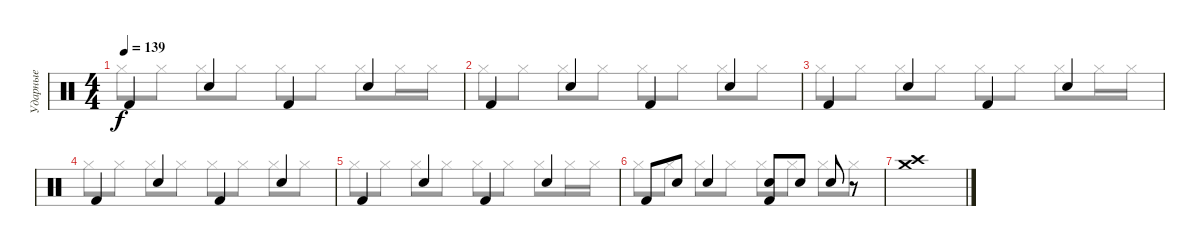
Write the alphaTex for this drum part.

\track ("Ударные" "Ударные") {instrument percussion}
\staff {score}
\articulation defaults
\voice
\ts (4 4)
\tempo 139
\clef neutral
\ks c "Kick (hit) 2".4{dy f} "Snare (hit) 2".4 "Kick (hit) 2".4 "Snare (hit) 2".4
|
"Kick (hit) 2".4 "Snare (hit) 2".4 "Kick (hit) 2".4 "Snare (hit) 2".4 |
"Kick (hit) 2".4 "Snare (hit) 2".4 "Kick (hit) 2".4 "Snare (hit) 2".4 |
"Kick (hit) 2".4 "Snare (hit) 2".4 "Kick (hit) 2".4 "Snare (hit) 2".4 |
"Kick (hit) 2".4 "Snare (hit) 2".4 "Kick (hit) 2".4 "Snare (hit) 2".4 |
"Kick (hit) 2".8 "Snare (hit) 2".8 "Snare (hit) 2".4 ("Kick (hit) 2" "Snare (hit) 2").8 "Snare (hit) 2".8 "Snare (hit) 2".8 r.8 |
("Crash high (hit)" "Crash medium (hit)").1 |
|
\voice
\clef neutral
\ottava regular
\simile none
\ks c "Hi-Hat (closed)".8{dy f} "Hi-Hat (closed)".8 "Hi-Hat (closed)".8 "Hi-Hat (closed)".8 "Hi-Hat (closed)".8 "Hi-Hat (closed)".8 "Hi-Hat (closed)".8 "Hi-Hat (closed)".16 "Hi-Hat (closed)".16
|
"Hi-Hat (closed)".8 "Hi-Hat (closed)".8 "Hi-Hat (closed)".8 "Hi-Hat (closed)".8 "Hi-Hat (closed)".8 "Hi-Hat (closed)".8 "Hi-Hat (closed)".8 "Hi-Hat (closed)".8 |
"Hi-Hat (closed)".8 "Hi-Hat (closed)".8 "Hi-Hat (closed)".8 "Hi-Hat (closed)".8 "Hi-Hat (closed)".8 "Hi-Hat (closed)".8 "Hi-Hat (closed)".8 "Hi-Hat (closed)".16 "Hi-Hat (closed)".16 |
"Hi-Hat (closed)".8 "Hi-Hat (closed)".8 "Hi-Hat (closed)".8 "Hi-Hat (closed)".8 "Hi-Hat (closed)".8 "Hi-Hat (closed)".8 "Hi-Hat (closed)".8 "Hi-Hat (closed)".8 |
"Hi-Hat (closed)".8 "Hi-Hat (closed)".8 "Hi-Hat (closed)".8 "Hi-Hat (closed)".8 "Hi-Hat (closed)".8 "Hi-Hat (closed)".8 "Hi-Hat (closed)".8 "Hi-Hat (closed)".16 "Hi-Hat (closed)".16 |
"Hi-Hat (closed)".8 "Hi-Hat (closed)".8 "Hi-Hat (closed)".8 "Hi-Hat (closed)".8 "Hi-Hat (closed)".8 "Hi-Hat (closed)".8 "Hi-Hat (closed)".8 "Hi-Hat (closed)".8 |
|
|
